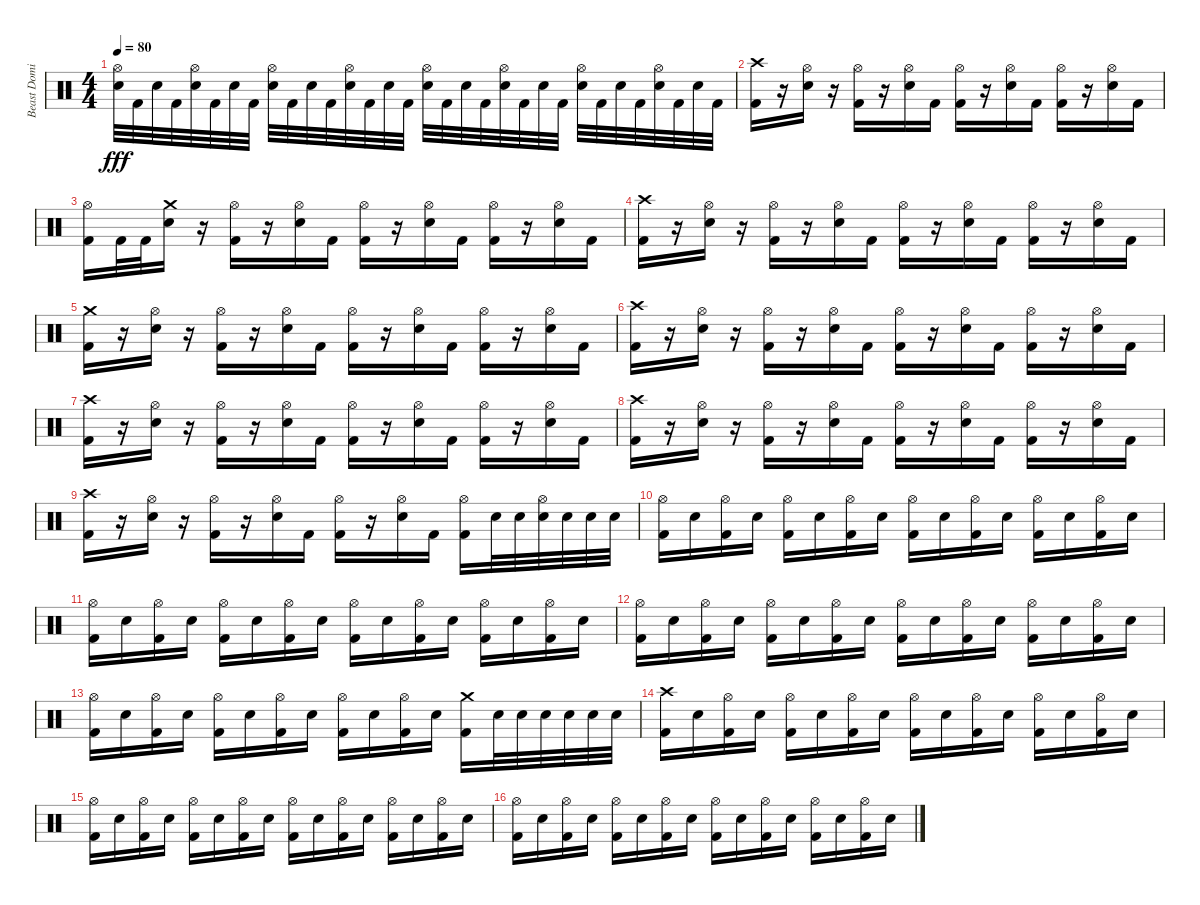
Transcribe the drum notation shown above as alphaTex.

\track ("Beast Dominator" "Beast Domi") {instrument percussion}
\staff {score}
\articulation defaults
\ts (4 4)
\tempo 80
\clef neutral
\ks c
("Hi-Hat (open)" "Snare (hit) 2").32{dy fff} "Kick (hit) 2".32 "Snare (hit) 2".32 "Kick (hit) 2".32 ("Hi-Hat (open)" "Snare (hit) 2").32 "Kick (hit) 2".32 "Snare (hit) 2".32 "Kick (hit) 2".32 ("Hi-Hat (open)" "Snare (hit) 2").32 "Kick (hit) 2".32 "Snare (hit) 2".32 "Kick (hit) 2".32 ("Hi-Hat (open)" "Snare (hit) 2").32 "Kick (hit) 2".32 "Snare (hit) 2".32 "Kick (hit) 2".32 ("Hi-Hat (open)" "Snare (hit) 2").32 "Kick (hit) 2".32 "Snare (hit) 2".32 "Kick (hit) 2".32 ("Hi-Hat (open)" "Snare (hit) 2").32 "Kick (hit) 2".32 "Snare (hit) 2".32 "Kick (hit) 2".32 ("Hi-Hat (open)" "Snare (hit) 2").32 "Kick (hit) 2".32 "Snare (hit) 2".32 "Kick (hit) 2".32 ("Hi-Hat (open)" "Snare (hit) 2").32 "Kick (hit) 2".32 "Snare (hit) 2".32 "Kick (hit) 2".32 |
("Crash high (hit)" "Kick (hit) 2").16 r.16 ("Hi-Hat (open)" "Snare (hit) 2").16 r.16 ("Hi-Hat (open)" "Kick (hit) 2").16 r.16 ("Hi-Hat (open)" "Snare (hit) 2").16 "Kick (hit) 2".16 ("Hi-Hat (open)" "Kick (hit) 2").16 r.16 ("Hi-Hat (open)" "Snare (hit) 2").16 "Kick (hit) 2".16 ("Hi-Hat (open)" "Kick (hit) 2").16 r.16 ("Hi-Hat (open)" "Snare (hit) 2").16 "Kick (hit) 2".16 |
("Hi-Hat (open)" "Kick (hit) 2").16 "Kick (hit) 2".32 "Kick (hit) 2".32 ("Crash medium (hit)" "Snare (hit) 2").16 r.16 ("Hi-Hat (open)" "Kick (hit) 2").16 r.16 ("Hi-Hat (open)" "Snare (hit) 2").16 "Kick (hit) 2".16 ("Hi-Hat (open)" "Kick (hit) 2").16 r.16 ("Hi-Hat (open)" "Snare (hit) 2").16 "Kick (hit) 2".16 ("Hi-Hat (open)" "Kick (hit) 2").16 r.16 ("Hi-Hat (open)" "Snare (hit) 2").16 "Kick (hit) 2".16 |
("Crash high (hit)" "Kick (hit) 2").16 r.16 ("Hi-Hat (open)" "Snare (hit) 2").16 r.16 ("Hi-Hat (open)" "Kick (hit) 2").16 r.16 ("Hi-Hat (open)" "Snare (hit) 2").16 "Kick (hit) 2".16 ("Hi-Hat (open)" "Kick (hit) 2").16 r.16 ("Hi-Hat (open)" "Snare (hit) 2").16 "Kick (hit) 2".16 ("Hi-Hat (open)" "Kick (hit) 2").16 r.16 ("Hi-Hat (open)" "Snare (hit) 2").16 "Kick (hit) 2".16 |
("Crash medium (hit)" "Kick (hit) 2").16 r.16 ("Hi-Hat (open)" "Snare (hit) 2").16 r.16 ("Hi-Hat (open)" "Kick (hit) 2").16 r.16 ("Hi-Hat (open)" "Snare (hit) 2").16 "Kick (hit) 2".16 ("Hi-Hat (open)" "Kick (hit) 2").16 r.16 ("Hi-Hat (open)" "Snare (hit) 2").16 "Kick (hit) 2".16 ("Hi-Hat (open)" "Kick (hit) 2").16 r.16 ("Hi-Hat (open)" "Snare (hit) 2").16 "Kick (hit) 2".16 |
("Crash high (hit)" "Kick (hit) 2").16 r.16 ("Hi-Hat (open)" "Snare (hit) 2").16 r.16 ("Hi-Hat (open)" "Kick (hit) 2").16 r.16 ("Hi-Hat (open)" "Snare (hit) 2").16 "Kick (hit) 2".16 ("Hi-Hat (open)" "Kick (hit) 2").16 r.16 ("Hi-Hat (open)" "Snare (hit) 2").16 "Kick (hit) 2".16 ("Hi-Hat (open)" "Kick (hit) 2").16 r.16 ("Hi-Hat (open)" "Snare (hit) 2").16 "Kick (hit) 2".16 |
("Crash high (hit)" "Kick (hit) 2").16 r.16 ("Hi-Hat (open)" "Snare (hit) 2").16 r.16 ("Hi-Hat (open)" "Kick (hit) 2").16 r.16 ("Hi-Hat (open)" "Snare (hit) 2").16 "Kick (hit) 2".16 ("Hi-Hat (open)" "Kick (hit) 2").16 r.16 ("Hi-Hat (open)" "Snare (hit) 2").16 "Kick (hit) 2".16 ("Hi-Hat (open)" "Kick (hit) 2").16 r.16 ("Hi-Hat (open)" "Snare (hit) 2").16 "Kick (hit) 2".16 |
("Crash high (hit)" "Kick (hit) 2").16 r.16 ("Hi-Hat (open)" "Snare (hit) 2").16 r.16 ("Hi-Hat (open)" "Kick (hit) 2").16 r.16 ("Hi-Hat (open)" "Snare (hit) 2").16 "Kick (hit) 2".16 ("Hi-Hat (open)" "Kick (hit) 2").16 r.16 ("Hi-Hat (open)" "Snare (hit) 2").16 "Kick (hit) 2".16 ("Hi-Hat (open)" "Kick (hit) 2").16 r.16 ("Hi-Hat (open)" "Snare (hit) 2").16 "Kick (hit) 2".16 |
("Crash high (hit)" "Kick (hit) 2").16 r.16 ("Hi-Hat (open)" "Snare (hit) 2").16 r.16 ("Hi-Hat (open)" "Kick (hit) 2").16 r.16 ("Hi-Hat (open)" "Snare (hit) 2").16 "Kick (hit) 2".16 ("Hi-Hat (open)" "Kick (hit) 2").16 r.16 ("Hi-Hat (open)" "Snare (hit) 2").16 "Kick (hit) 2".16 ("Hi-Hat (open)" "Kick (hit) 2").16 "Snare (hit) 2".32 "Snare (hit) 2".32 ("Hi-Hat (open)" "Snare (hit) 2").32 "Snare (hit) 2".32 "Snare (hit) 2".32 "Snare (hit) 2".32 |
("Hi-Hat (open)" "Kick (hit) 2").16 "Snare (hit) 2".16 ("Hi-Hat (open)" "Kick (hit) 2").16 "Snare (hit) 2".16 ("Hi-Hat (open)" "Kick (hit) 2").16 "Snare (hit) 2".16 ("Hi-Hat (open)" "Kick (hit) 2").16 "Snare (hit) 2".16 ("Hi-Hat (open)" "Kick (hit) 2").16 "Snare (hit) 2".16 ("Hi-Hat (open)" "Kick (hit) 2").16 "Snare (hit) 2".16 ("Hi-Hat (open)" "Kick (hit) 2").16 "Snare (hit) 2".16 ("Hi-Hat (open)" "Kick (hit) 2").16 "Snare (hit) 2".16 |
("Hi-Hat (open)" "Kick (hit) 2").16 "Snare (hit) 2".16 ("Hi-Hat (open)" "Kick (hit) 2").16 "Snare (hit) 2".16 ("Hi-Hat (open)" "Kick (hit) 2").16 "Snare (hit) 2".16 ("Hi-Hat (open)" "Kick (hit) 2").16 "Snare (hit) 2".16 ("Hi-Hat (open)" "Kick (hit) 2").16 "Snare (hit) 2".16 ("Hi-Hat (open)" "Kick (hit) 2").16 "Snare (hit) 2".16 ("Hi-Hat (open)" "Kick (hit) 2").16 "Snare (hit) 2".16 ("Hi-Hat (open)" "Kick (hit) 2").16 "Snare (hit) 2".16 |
("Hi-Hat (open)" "Kick (hit) 2").16 "Snare (hit) 2".16 ("Hi-Hat (open)" "Kick (hit) 2").16 "Snare (hit) 2".16 ("Hi-Hat (open)" "Kick (hit) 2").16 "Snare (hit) 2".16 ("Hi-Hat (open)" "Kick (hit) 2").16 "Snare (hit) 2".16 ("Hi-Hat (open)" "Kick (hit) 2").16 "Snare (hit) 2".16 ("Hi-Hat (open)" "Kick (hit) 2").16 "Snare (hit) 2".16 ("Hi-Hat (open)" "Kick (hit) 2").16 "Snare (hit) 2".16 ("Hi-Hat (open)" "Kick (hit) 2").16 "Snare (hit) 2".16 |
("Hi-Hat (open)" "Kick (hit) 2").16 "Snare (hit) 2".16 ("Hi-Hat (open)" "Kick (hit) 2").16 "Snare (hit) 2".16 ("Hi-Hat (open)" "Kick (hit) 2").16 "Snare (hit) 2".16 ("Hi-Hat (open)" "Kick (hit) 2").16 "Snare (hit) 2".16 ("Hi-Hat (open)" "Kick (hit) 2").16 "Snare (hit) 2".16 ("Hi-Hat (open)" "Kick (hit) 2").16 "Snare (hit) 2".16 ("Crash medium (hit)" "Kick (hit) 2").16 "Snare (hit) 2".32 "Snare (hit) 2".32 "Snare (hit) 2".32 "Snare (hit) 2".32 "Snare (hit) 2".32 "Snare (hit) 2".32 |
("Crash high (hit)" "Kick (hit) 2").16 "Snare (hit) 2".16 ("Hi-Hat (open)" "Kick (hit) 2").16 "Snare (hit) 2".16 ("Hi-Hat (open)" "Kick (hit) 2").16 "Snare (hit) 2".16 ("Hi-Hat (open)" "Kick (hit) 2").16 "Snare (hit) 2".16 ("Hi-Hat (open)" "Kick (hit) 2").16 "Snare (hit) 2".16 ("Hi-Hat (open)" "Kick (hit) 2").16 "Snare (hit) 2".16 ("Hi-Hat (open)" "Kick (hit) 2").16 "Snare (hit) 2".16 ("Hi-Hat (open)" "Kick (hit) 2").16 "Snare (hit) 2".16 |
("Hi-Hat (open)" "Kick (hit) 2").16 "Snare (hit) 2".16 ("Hi-Hat (open)" "Kick (hit) 2").16 "Snare (hit) 2".16 ("Hi-Hat (open)" "Kick (hit) 2").16 "Snare (hit) 2".16 ("Hi-Hat (open)" "Kick (hit) 2").16 "Snare (hit) 2".16 ("Hi-Hat (open)" "Kick (hit) 2").16 "Snare (hit) 2".16 ("Hi-Hat (open)" "Kick (hit) 2").16 "Snare (hit) 2".16 ("Hi-Hat (open)" "Kick (hit) 2").16 "Snare (hit) 2".16 ("Hi-Hat (open)" "Kick (hit) 2").16 "Snare (hit) 2".16 |
("Hi-Hat (open)" "Kick (hit) 2").16 "Snare (hit) 2".16 ("Hi-Hat (open)" "Kick (hit) 2").16 "Snare (hit) 2".16 ("Hi-Hat (open)" "Kick (hit) 2").16 "Snare (hit) 2".16 ("Hi-Hat (open)" "Kick (hit) 2").16 "Snare (hit) 2".16 ("Hi-Hat (open)" "Kick (hit) 2").16 "Snare (hit) 2".16 ("Hi-Hat (open)" "Kick (hit) 2").16 "Snare (hit) 2".16 ("Hi-Hat (open)" "Kick (hit) 2").16 "Snare (hit) 2".16 ("Hi-Hat (open)" "Kick (hit) 2").16 "Snare (hit) 2".16
